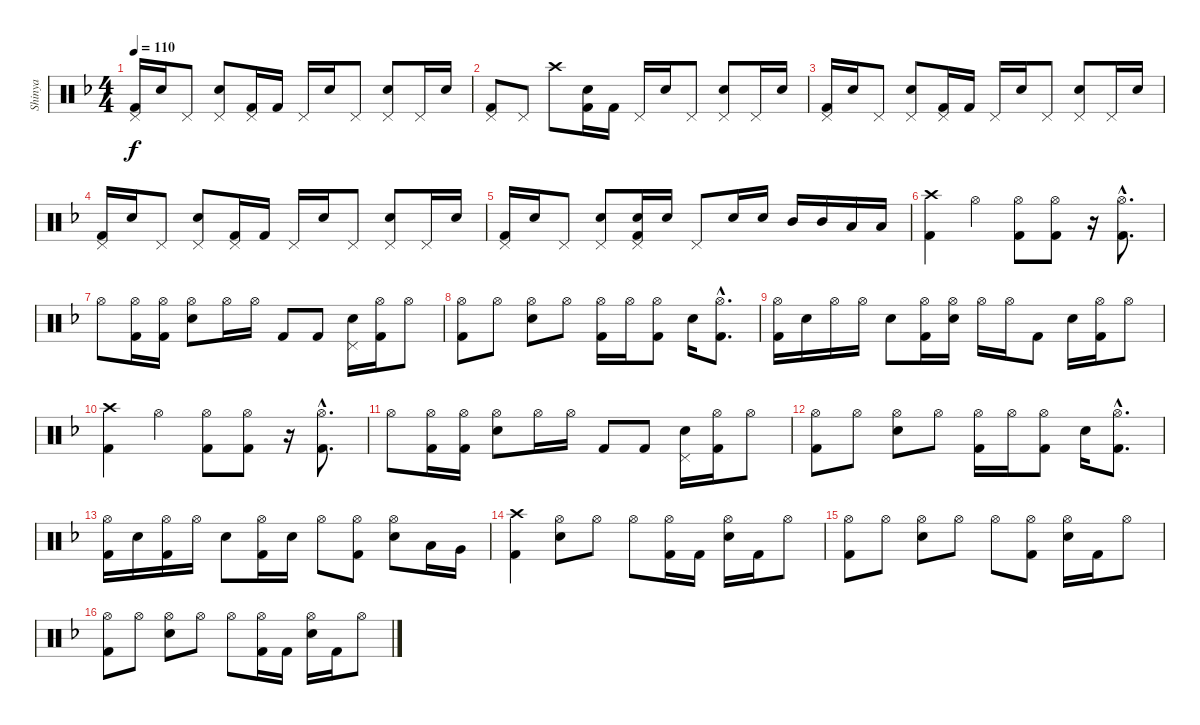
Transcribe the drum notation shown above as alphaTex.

\track ("Shinya" "Shinya") {instrument percussion}
\staff {score}
\articulation defaults
\ts (4 4)
\tempo 110
\clef neutral
\ks f
("Pedal Hi-Hat (hit)" "Kick (hit) 2").16{dy f} "Electric Snare (hit)".16 "Pedal Hi-Hat (hit)".8 ("Pedal Hi-Hat (hit)" "Electric Snare (hit)").8 ("Pedal Hi-Hat (hit)" "Kick (hit) 2").16 "Kick (hit) 2".16 "Pedal Hi-Hat (hit)".16 "Electric Snare (hit)".16 "Pedal Hi-Hat (hit)".8 ("Pedal Hi-Hat (hit)" "Electric Snare (hit)").8 "Pedal Hi-Hat (hit)".16 "Electric Snare (hit)".16 |
("Pedal Hi-Hat (hit)" "Kick (hit) 2").8 "Pedal Hi-Hat (hit)".8 "Crash high (hit)".8 ("Electric Snare (hit)" "Kick (hit) 2").16 "Kick (hit) 2".16 "Pedal Hi-Hat (hit)".16 "Electric Snare (hit)".16 "Pedal Hi-Hat (hit)".8 ("Pedal Hi-Hat (hit)" "Electric Snare (hit)").8 "Pedal Hi-Hat (hit)".16 "Electric Snare (hit)".16 |
("Pedal Hi-Hat (hit)" "Kick (hit) 2").16 "Electric Snare (hit)".16 "Pedal Hi-Hat (hit)".8 ("Pedal Hi-Hat (hit)" "Electric Snare (hit)").8 ("Pedal Hi-Hat (hit)" "Kick (hit) 2").16 "Kick (hit) 2".16 "Pedal Hi-Hat (hit)".16 "Electric Snare (hit)".16 "Pedal Hi-Hat (hit)".8 ("Pedal Hi-Hat (hit)" "Electric Snare (hit)").8 "Pedal Hi-Hat (hit)".16 "Electric Snare (hit)".16 |
("Pedal Hi-Hat (hit)" "Kick (hit) 2").16 "Electric Snare (hit)".16 "Pedal Hi-Hat (hit)".8 ("Pedal Hi-Hat (hit)" "Electric Snare (hit)").8 ("Pedal Hi-Hat (hit)" "Kick (hit) 2").16 "Kick (hit) 2".16 "Pedal Hi-Hat (hit)".16 "Electric Snare (hit)".16 "Pedal Hi-Hat (hit)".8 ("Pedal Hi-Hat (hit)" "Electric Snare (hit)").8 "Pedal Hi-Hat (hit)".16 "Electric Snare (hit)".16 |
("Pedal Hi-Hat (hit)" "Kick (hit) 2").16 "Electric Snare (hit)".16 "Pedal Hi-Hat (hit)".8 ("Pedal Hi-Hat (hit)" "Electric Snare (hit)").8 ("Pedal Hi-Hat (hit)" "Electric Snare (hit)" "Kick (hit) 2").16 "Electric Snare (hit)".16 "Pedal Hi-Hat (hit)".8 "Electric Snare (hit)".16 "Electric Snare (hit)".16 "Mid Tom (hit)".16 "Mid Tom (hit)".16 "Low Tom (hit)".16 "Low Tom (hit)".16 |
("Crash high (hit)" "Kick (hit) 2").4 "Hi-Hat (open)".4 ("Hi-Hat (open)" "Kick (hit) 2").8 ("Hi-Hat (open)" "Kick (hit) 2").8 r.16 ("Hi-Hat (open)"{hac} "Kick (hit) 2"{hac}).8{d} |
"Hi-Hat (open)".8 ("Hi-Hat (open)" "Kick (hit) 2").16 ("Hi-Hat (open)" "Kick (hit) 2").16 ("Hi-Hat (open)" "Electric Snare (hit)").8 "Hi-Hat (open)".16 "Hi-Hat (open)".16 "Kick (hit) 2".8 "Kick (hit) 2".8 ("Pedal Hi-Hat (hit)" "Electric Snare (hit)").16 ("Hi-Hat (open)" "Kick (hit) 2").16 "Hi-Hat (open)".8 |
("Hi-Hat (open)" "Kick (hit) 2").8 "Hi-Hat (open)".8 ("Hi-Hat (open)" "Electric Snare (hit)").8 "Hi-Hat (open)".8 ("Hi-Hat (open)" "Kick (hit) 2").16 "Hi-Hat (open)".16 ("Hi-Hat (open)" "Kick (hit) 2").8 "Electric Snare (hit)".16 ("Hi-Hat (open)"{hac} "Kick (hit) 2"{hac}).8{d} |
("Hi-Hat (open)" "Kick (hit) 2").16 "Electric Snare (hit)".16 "Hi-Hat (open)".16 "Hi-Hat (open)".16 "Electric Snare (hit)".8 ("Hi-Hat (open)" "Kick (hit) 2").16 ("Hi-Hat (open)" "Electric Snare (hit)").16 "Hi-Hat (open)".16 "Hi-Hat (open)".16 "Kick (hit) 2".8 "Electric Snare (hit)".16 ("Hi-Hat (open)" "Kick (hit) 2").16 "Hi-Hat (open)".8 |
("Crash high (hit)" "Kick (hit) 2").4 "Hi-Hat (open)".4 ("Hi-Hat (open)" "Kick (hit) 2").8 ("Hi-Hat (open)" "Kick (hit) 2").8 r.16 ("Hi-Hat (open)"{hac} "Kick (hit) 2"{hac}).8{d} |
"Hi-Hat (open)".8 ("Hi-Hat (open)" "Kick (hit) 2").16 ("Hi-Hat (open)" "Kick (hit) 2").16 ("Hi-Hat (open)" "Electric Snare (hit)").8 "Hi-Hat (open)".16 "Hi-Hat (open)".16 "Kick (hit) 2".8 "Kick (hit) 2".8 ("Pedal Hi-Hat (hit)" "Electric Snare (hit)").16 ("Hi-Hat (open)" "Kick (hit) 2").16 "Hi-Hat (open)".8 |
("Hi-Hat (open)" "Kick (hit) 2").8 "Hi-Hat (open)".8 ("Hi-Hat (open)" "Electric Snare (hit)").8 "Hi-Hat (open)".8 ("Hi-Hat (open)" "Kick (hit) 2").16 "Hi-Hat (open)".16 ("Hi-Hat (open)" "Kick (hit) 2").8 "Electric Snare (hit)".16 ("Hi-Hat (open)"{hac} "Kick (hit) 2"{hac}).8{d} |
("Hi-Hat (open)" "Kick (hit) 2").16 "Electric Snare (hit)".16 ("Hi-Hat (open)" "Kick (hit) 2").16 "Hi-Hat (open)".16 "Electric Snare (hit)".8 ("Hi-Hat (open)" "Kick (hit) 2").16 "Electric Snare (hit)".16 "Hi-Hat (open)".8 ("Hi-Hat (open)" "Kick (hit) 2").8 ("Hi-Hat (open)" "Electric Snare (hit)").8 "Low Tom (hit)".16 "Very Low Tom (hit)".16 |
("Crash high (hit)" "Kick (hit) 2").4 ("Hi-Hat (open)" "Electric Snare (hit)").8 "Hi-Hat (open)".8 "Hi-Hat (open)".8 ("Hi-Hat (open)" "Kick (hit) 2").16 "Kick (hit) 2".16 ("Hi-Hat (open)" "Electric Snare (hit)").16 "Kick (hit) 2".16 "Hi-Hat (open)".8 |
("Hi-Hat (open)" "Kick (hit) 2").8 "Hi-Hat (open)".8 ("Hi-Hat (open)" "Electric Snare (hit)").8 "Hi-Hat (open)".8 "Hi-Hat (open)".8 ("Hi-Hat (open)" "Kick (hit) 2").8 ("Hi-Hat (open)" "Electric Snare (hit)").16 "Kick (hit) 2".16 "Hi-Hat (open)".8 |
("Hi-Hat (open)" "Kick (hit) 2").8 "Hi-Hat (open)".8 ("Hi-Hat (open)" "Electric Snare (hit)").8 "Hi-Hat (open)".8 "Hi-Hat (open)".8 ("Hi-Hat (open)" "Kick (hit) 2").16 "Kick (hit) 2".16 ("Hi-Hat (open)" "Electric Snare (hit)").16 "Kick (hit) 2".16 "Hi-Hat (open)".8
